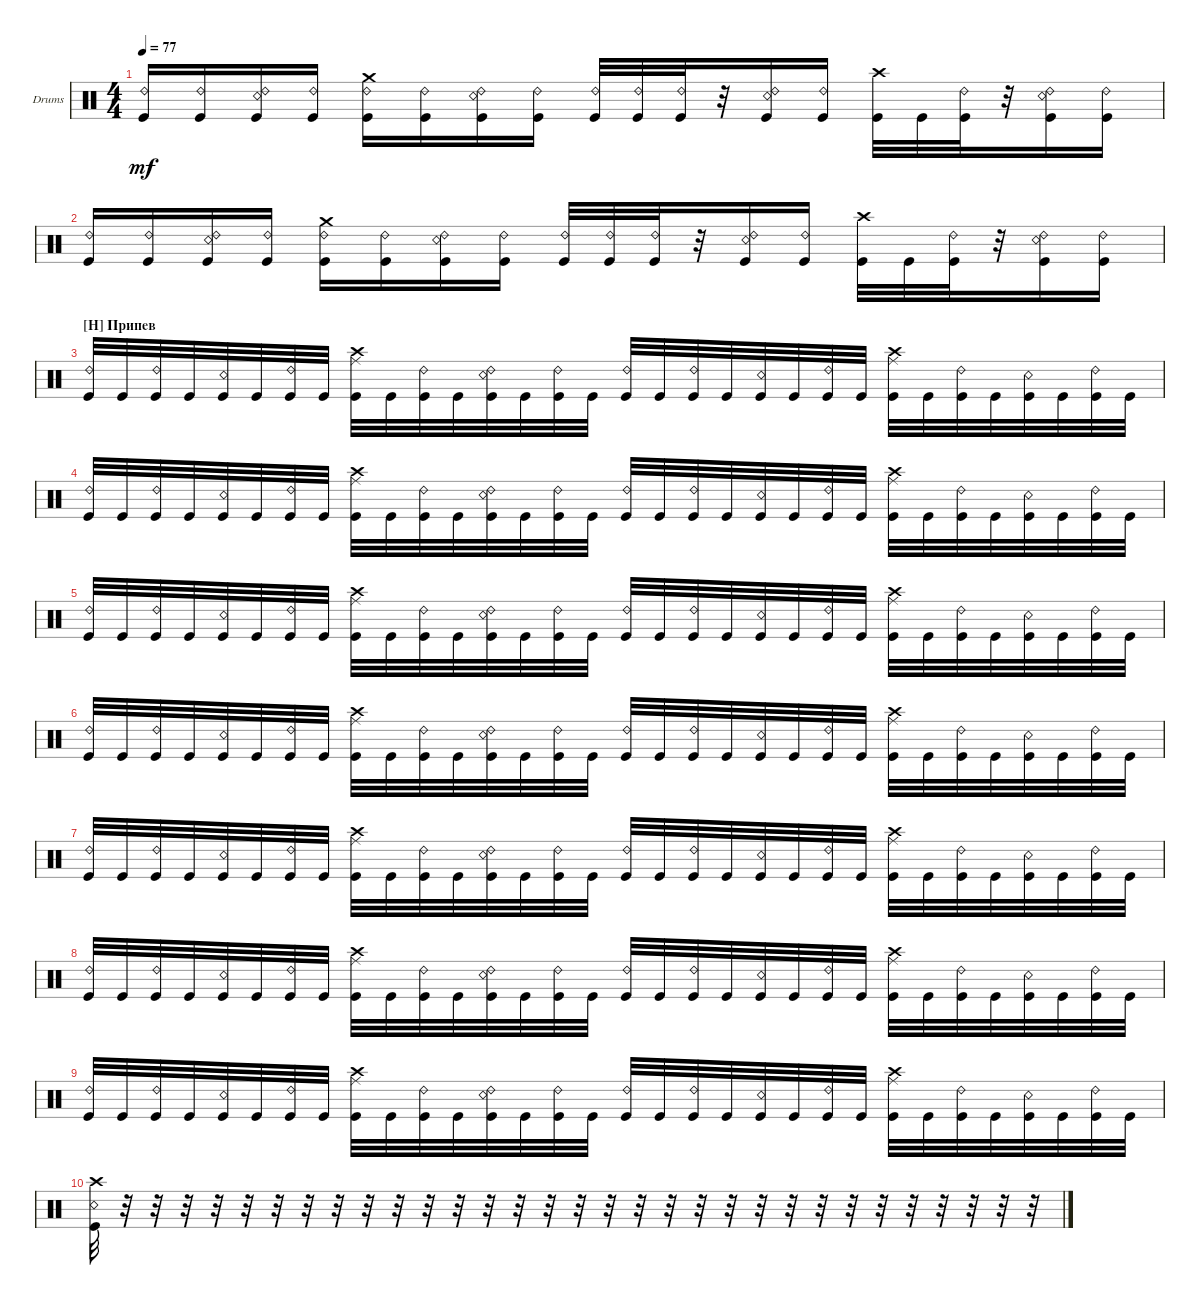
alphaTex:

\bracketExtendMode groupsimilarinstruments
\firstSystemTrackNameOrientation horizontal
\otherSystemsTrackNameOrientation horizontal
\track ("Drumkit" "Drums") {instrument percussion}
\staff {score}
\articulation defaults
\ts (4 4)
\tempo 77
\clef neutral
\ks c
("Kick (hit)" "Ride (bell) 2").16{dy mf} ("Kick (hit)" "Ride (bell) 2").16 ("Snare (rim shot)" "Kick (hit)" "Ride (bell) 2").16 ("Kick (hit)" "Ride (bell) 2").16 ("Kick (hit)" "Ride (bell) 2" "Crash medium (hit)").16 ("Kick (hit)" "Ride (bell) 2").16 ("Snare (rim shot)" "Kick (hit)" "Ride (bell) 2").16 ("Kick (hit)" "Ride (bell) 2").16 ("Kick (hit)" "Ride (bell) 2").32 ("Kick (hit)" "Ride (bell) 2").32 ("Kick (hit)" "Ride (bell) 2").32 r.32 ("Snare (rim shot)" "Kick (hit)" "Ride (bell) 2").16 ("Kick (hit)" "Ride (bell) 2").16 ("Kick (hit)" "Crash high (hit)").32 "Kick (hit)".32 ("Kick (hit)" "Ride (bell) 2").32 r.32 ("Snare (rim shot)" "Kick (hit)" "Ride (bell) 2").16 ("Kick (hit)" "Ride (bell) 2").16 |
("Kick (hit)" "Ride (bell) 2").16 ("Kick (hit)" "Ride (bell) 2").16 ("Snare (rim shot)" "Kick (hit)" "Ride (bell) 2").16 ("Kick (hit)" "Ride (bell) 2").16 ("Kick (hit)" "Ride (bell) 2" "Crash medium (hit)").16 ("Kick (hit)" "Ride (bell) 2").16 ("Snare (rim shot)" "Kick (hit)" "Ride (bell) 2").16 ("Kick (hit)" "Ride (bell) 2").16 ("Kick (hit)" "Ride (bell) 2").32 ("Kick (hit)" "Ride (bell) 2").32 ("Kick (hit)" "Ride (bell) 2").32 r.32 ("Snare (rim shot)" "Kick (hit)" "Ride (bell) 2").16 ("Kick (hit)" "Ride (bell) 2").16 ("Kick (hit)" "Crash high (hit)").32 "Kick (hit)".32 ("Kick (hit)" "Ride (bell) 2").32 r.32 ("Snare (rim shot)" "Kick (hit)" "Ride (bell) 2").16 ("Kick (hit)" "Ride (bell) 2").16 |
\section ("H" "Припев")
("Kick (hit)" "Ride (bell) 2").32 "Kick (hit)".32 ("Kick (hit)" "Ride (bell) 2").32 "Kick (hit)".32 ("Snare (rim shot)" "Kick (hit)").32 "Kick (hit)".32 ("Kick (hit)" "Ride (bell) 2").32 "Kick (hit)".32 ("Kick (hit)" "Ride (middle)" "Crash high (hit)").32 "Kick (hit)".32 ("Kick (hit)" "Ride (bell) 2").32 "Kick (hit)".32 ("Snare (rim shot)" "Kick (hit)" "Ride (bell) 2").32 "Kick (hit)".32 ("Kick (hit)" "Ride (bell) 2").32 "Kick (hit)".32 ("Kick (hit)" "Ride (bell) 2").32 "Kick (hit)".32 ("Kick (hit)" "Ride (bell) 2").32 "Kick (hit)".32 ("Snare (rim shot)" "Kick (hit)").32 "Kick (hit)".32 ("Kick (hit)" "Ride (bell) 2").32 "Kick (hit)".32 ("Kick (hit)" "Ride (middle)" "Crash high (hit)").32 "Kick (hit)".32 ("Kick (hit)" "Ride (bell) 2").32 "Kick (hit)".32 ("Snare (rim shot)" "Kick (hit)").32 "Kick (hit)".32 ("Kick (hit)" "Ride (bell) 2").32 "Kick (hit)".32 |
("Kick (hit)" "Ride (bell) 2").32 "Kick (hit)".32 ("Kick (hit)" "Ride (bell) 2").32 "Kick (hit)".32 ("Snare (rim shot)" "Kick (hit)").32 "Kick (hit)".32 ("Kick (hit)" "Ride (bell) 2").32 "Kick (hit)".32 ("Kick (hit)" "Ride (middle)" "Crash high (hit)").32 "Kick (hit)".32 ("Kick (hit)" "Ride (bell) 2").32 "Kick (hit)".32 ("Snare (rim shot)" "Kick (hit)" "Ride (bell) 2").32 "Kick (hit)".32 ("Kick (hit)" "Ride (bell) 2").32 "Kick (hit)".32 ("Kick (hit)" "Ride (bell) 2").32 "Kick (hit)".32 ("Kick (hit)" "Ride (bell) 2").32 "Kick (hit)".32 ("Snare (rim shot)" "Kick (hit)").32 "Kick (hit)".32 ("Kick (hit)" "Ride (bell) 2").32 "Kick (hit)".32 ("Kick (hit)" "Ride (middle)" "Crash high (hit)").32 "Kick (hit)".32 ("Kick (hit)" "Ride (bell) 2").32 "Kick (hit)".32 ("Snare (rim shot)" "Kick (hit)").32 "Kick (hit)".32 ("Kick (hit)" "Ride (bell) 2").32 "Kick (hit)".32 |
("Kick (hit)" "Ride (bell) 2").32 "Kick (hit)".32 ("Kick (hit)" "Ride (bell) 2").32 "Kick (hit)".32 ("Snare (rim shot)" "Kick (hit)").32 "Kick (hit)".32 ("Kick (hit)" "Ride (bell) 2").32 "Kick (hit)".32 ("Kick (hit)" "Ride (middle)" "Crash high (hit)").32 "Kick (hit)".32 ("Kick (hit)" "Ride (bell) 2").32 "Kick (hit)".32 ("Snare (rim shot)" "Kick (hit)" "Ride (bell) 2").32 "Kick (hit)".32 ("Kick (hit)" "Ride (bell) 2").32 "Kick (hit)".32 ("Kick (hit)" "Ride (bell) 2").32 "Kick (hit)".32 ("Kick (hit)" "Ride (bell) 2").32 "Kick (hit)".32 ("Snare (rim shot)" "Kick (hit)").32 "Kick (hit)".32 ("Kick (hit)" "Ride (bell) 2").32 "Kick (hit)".32 ("Kick (hit)" "Ride (middle)" "Crash high (hit)").32 "Kick (hit)".32 ("Kick (hit)" "Ride (bell) 2").32 "Kick (hit)".32 ("Snare (rim shot)" "Kick (hit)").32 "Kick (hit)".32 ("Kick (hit)" "Ride (bell) 2").32 "Kick (hit)".32 |
("Kick (hit)" "Ride (bell) 2").32 "Kick (hit)".32 ("Kick (hit)" "Ride (bell) 2").32 "Kick (hit)".32 ("Snare (rim shot)" "Kick (hit)").32 "Kick (hit)".32 ("Kick (hit)" "Ride (bell) 2").32 "Kick (hit)".32 ("Kick (hit)" "Ride (middle)" "Crash high (hit)").32 "Kick (hit)".32 ("Kick (hit)" "Ride (bell) 2").32 "Kick (hit)".32 ("Snare (rim shot)" "Kick (hit)" "Ride (bell) 2").32 "Kick (hit)".32 ("Kick (hit)" "Ride (bell) 2").32 "Kick (hit)".32 ("Kick (hit)" "Ride (bell) 2").32 "Kick (hit)".32 ("Kick (hit)" "Ride (bell) 2").32 "Kick (hit)".32 ("Snare (rim shot)" "Kick (hit)").32 "Kick (hit)".32 ("Kick (hit)" "Ride (bell) 2").32 "Kick (hit)".32 ("Kick (hit)" "Ride (middle)" "Crash high (hit)").32 "Kick (hit)".32 ("Kick (hit)" "Ride (bell) 2").32 "Kick (hit)".32 ("Snare (rim shot)" "Kick (hit)").32 "Kick (hit)".32 ("Kick (hit)" "Ride (bell) 2").32 "Kick (hit)".32 |
("Kick (hit)" "Ride (bell) 2").32 "Kick (hit)".32 ("Kick (hit)" "Ride (bell) 2").32 "Kick (hit)".32 ("Snare (rim shot)" "Kick (hit)").32 "Kick (hit)".32 ("Kick (hit)" "Ride (bell) 2").32 "Kick (hit)".32 ("Kick (hit)" "Ride (middle)" "Crash high (hit)").32 "Kick (hit)".32 ("Kick (hit)" "Ride (bell) 2").32 "Kick (hit)".32 ("Snare (rim shot)" "Kick (hit)" "Ride (bell) 2").32 "Kick (hit)".32 ("Kick (hit)" "Ride (bell) 2").32 "Kick (hit)".32 ("Kick (hit)" "Ride (bell) 2").32 "Kick (hit)".32 ("Kick (hit)" "Ride (bell) 2").32 "Kick (hit)".32 ("Snare (rim shot)" "Kick (hit)").32 "Kick (hit)".32 ("Kick (hit)" "Ride (bell) 2").32 "Kick (hit)".32 ("Kick (hit)" "Ride (middle)" "Crash high (hit)").32 "Kick (hit)".32 ("Kick (hit)" "Ride (bell) 2").32 "Kick (hit)".32 ("Snare (rim shot)" "Kick (hit)").32 "Kick (hit)".32 ("Kick (hit)" "Ride (bell) 2").32 "Kick (hit)".32 |
("Kick (hit)" "Ride (bell) 2").32 "Kick (hit)".32 ("Kick (hit)" "Ride (bell) 2").32 "Kick (hit)".32 ("Snare (rim shot)" "Kick (hit)").32 "Kick (hit)".32 ("Kick (hit)" "Ride (bell) 2").32 "Kick (hit)".32 ("Kick (hit)" "Ride (middle)" "Crash high (hit)").32 "Kick (hit)".32 ("Kick (hit)" "Ride (bell) 2").32 "Kick (hit)".32 ("Snare (rim shot)" "Kick (hit)" "Ride (bell) 2").32 "Kick (hit)".32 ("Kick (hit)" "Ride (bell) 2").32 "Kick (hit)".32 ("Kick (hit)" "Ride (bell) 2").32 "Kick (hit)".32 ("Kick (hit)" "Ride (bell) 2").32 "Kick (hit)".32 ("Snare (rim shot)" "Kick (hit)").32 "Kick (hit)".32 ("Kick (hit)" "Ride (bell) 2").32 "Kick (hit)".32 ("Kick (hit)" "Ride (middle)" "Crash high (hit)").32 "Kick (hit)".32 ("Kick (hit)" "Ride (bell) 2").32 "Kick (hit)".32 ("Snare (rim shot)" "Kick (hit)").32 "Kick (hit)".32 ("Kick (hit)" "Ride (bell) 2").32 "Kick (hit)".32 |
("Kick (hit)" "Ride (bell) 2").32 "Kick (hit)".32 ("Kick (hit)" "Ride (bell) 2").32 "Kick (hit)".32 ("Snare (rim shot)" "Kick (hit)").32 "Kick (hit)".32 ("Kick (hit)" "Ride (bell) 2").32 "Kick (hit)".32 ("Kick (hit)" "Ride (middle)" "Crash high (hit)").32 "Kick (hit)".32 ("Kick (hit)" "Ride (bell) 2").32 "Kick (hit)".32 ("Snare (rim shot)" "Kick (hit)" "Ride (bell) 2").32 "Kick (hit)".32 ("Kick (hit)" "Ride (bell) 2").32 "Kick (hit)".32 ("Kick (hit)" "Ride (bell) 2").32 "Kick (hit)".32 ("Kick (hit)" "Ride (bell) 2").32 "Kick (hit)".32 ("Snare (rim shot)" "Kick (hit)").32 "Kick (hit)".32 ("Kick (hit)" "Ride (bell) 2").32 "Kick (hit)".32 ("Kick (hit)" "Ride (middle)" "Crash high (hit)").32 "Kick (hit)".32 ("Kick (hit)" "Ride (bell) 2").32 "Kick (hit)".32 ("Snare (rim shot)" "Kick (hit)").32 "Kick (hit)".32 ("Kick (hit)" "Ride (bell) 2").32 "Kick (hit)".32 |
("Kick (hit)" "Snare (rim shot)" "Crash high (hit)").32 r.32 r.32 r.32 r.32 r.32 r.32 r.32 r.32 r.32 r.32 r.32 r.32 r.32 r.32 r.32 r.32 r.32 r.32 r.32 r.32 r.32 r.32 r.32 r.32 r.32 r.32 r.32 r.32 r.32 r.32 r.32
